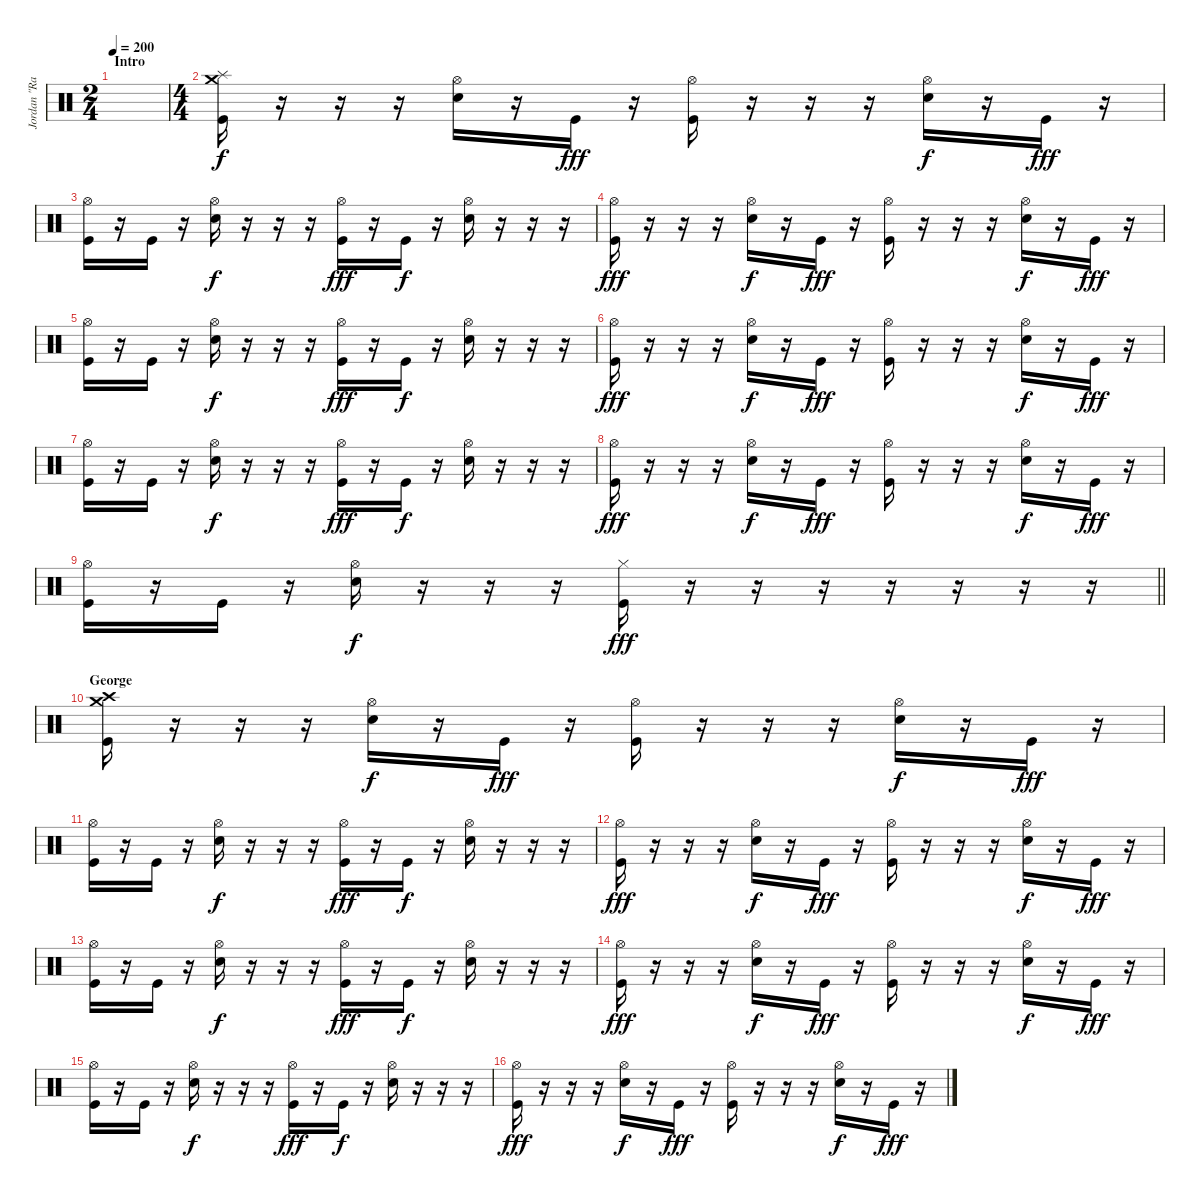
\track ("Jordan \"Ratbeard\" Hastings" "Jordan \"Ra") {instrument percussion}
\staff {score}
\articulation defaults
\ts (2 4)
\section ("" "Intro")
\tempo 200
\clef neutral
\ks c
|
\ts (4 4)
("Crash medium (hit)" "Splash (hit)" "Kick (hit)").16 r.16 r.16 r.16 ("Hi-Hat (open)" "Electric Snare (hit)").16{dy f} r.16 "Kick (hit)".16{dy fff} r.16 ("Hi-Hat (open)" "Kick (hit)").16 r.16 r.16 r.16 ("Hi-Hat (open)" "Electric Snare (hit)").16{dy f} r.16 "Kick (hit)".16{dy fff} r.16 |
("Hi-Hat (open)" "Kick (hit)").16 r.16 "Kick (hit)".16 r.16 ("Hi-Hat (open)" "Electric Snare (hit)").16{dy f} r.16 r.16 r.16 ("Hi-Hat (open)" "Kick (hit)").16{dy fff} r.16 "Kick (hit)".16{dy f} r.16 ("Hi-Hat (open)" "Electric Snare (hit)").16 r.16 r.16 r.16 |
("Hi-Hat (open)" "Kick (hit)").16{dy fff} r.16 r.16 r.16 ("Hi-Hat (open)" "Electric Snare (hit)").16{dy f} r.16 "Kick (hit)".16{dy fff} r.16 ("Hi-Hat (open)" "Kick (hit)").16 r.16 r.16 r.16 ("Hi-Hat (open)" "Electric Snare (hit)").16{dy f} r.16 "Kick (hit)".16{dy fff} r.16 |
("Hi-Hat (open)" "Kick (hit)").16 r.16 "Kick (hit)".16 r.16 ("Hi-Hat (open)" "Electric Snare (hit)").16{dy f} r.16 r.16 r.16 ("Hi-Hat (open)" "Kick (hit)").16{dy fff} r.16 "Kick (hit)".16{dy f} r.16 ("Hi-Hat (open)" "Electric Snare (hit)").16 r.16 r.16 r.16 |
("Hi-Hat (open)" "Kick (hit)").16{dy fff} r.16 r.16 r.16 ("Hi-Hat (open)" "Electric Snare (hit)").16{dy f} r.16 "Kick (hit)".16{dy fff} r.16 ("Hi-Hat (open)" "Kick (hit)").16 r.16 r.16 r.16 ("Hi-Hat (open)" "Electric Snare (hit)").16{dy f} r.16 "Kick (hit)".16{dy fff} r.16 |
("Hi-Hat (open)" "Kick (hit)").16 r.16 "Kick (hit)".16 r.16 ("Hi-Hat (open)" "Electric Snare (hit)").16{dy f} r.16 r.16 r.16 ("Hi-Hat (open)" "Kick (hit)").16{dy fff} r.16 "Kick (hit)".16{dy f} r.16 ("Hi-Hat (open)" "Electric Snare (hit)").16 r.16 r.16 r.16 |
("Hi-Hat (open)" "Kick (hit)").16{dy fff} r.16 r.16 r.16 ("Hi-Hat (open)" "Electric Snare (hit)").16{dy f} r.16 "Kick (hit)".16{dy fff} r.16 ("Hi-Hat (open)" "Kick (hit)").16 r.16 r.16 r.16 ("Hi-Hat (open)" "Electric Snare (hit)").16{dy f} r.16 "Kick (hit)".16{dy fff} r.16 |
\barLineRight lightlight
("Hi-Hat (open)" "Kick (hit)").16 r.16 "Kick (hit)".16 r.16 ("Hi-Hat (open)" "Electric Snare (hit)").16{dy f} r.16 r.16 r.16 ("Hi-Hat (closed)" "Kick (hit)").16{dy fff} r.16 r.16 r.16 r.16 r.16 r.16 r.16 |
\section ("" "George")
("Crash medium (hit)" "Crash high (hit)" "Kick (hit)").16 r.16 r.16 r.16 ("Hi-Hat (open)" "Electric Snare (hit)").16{dy f} r.16 "Kick (hit)".16{dy fff} r.16 ("Hi-Hat (open)" "Kick (hit)").16 r.16 r.16 r.16 ("Hi-Hat (open)" "Electric Snare (hit)").16{dy f} r.16 "Kick (hit)".16{dy fff} r.16 |
("Hi-Hat (open)" "Kick (hit)").16 r.16 "Kick (hit)".16 r.16 ("Hi-Hat (open)" "Electric Snare (hit)").16{dy f} r.16 r.16 r.16 ("Hi-Hat (open)" "Kick (hit)").16{dy fff} r.16 "Kick (hit)".16{dy f} r.16 ("Hi-Hat (open)" "Electric Snare (hit)").16 r.16 r.16 r.16 |
("Hi-Hat (open)" "Kick (hit)").16{dy fff} r.16 r.16 r.16 ("Hi-Hat (open)" "Electric Snare (hit)").16{dy f} r.16 "Kick (hit)".16{dy fff} r.16 ("Hi-Hat (open)" "Kick (hit)").16 r.16 r.16 r.16 ("Hi-Hat (open)" "Electric Snare (hit)").16{dy f} r.16 "Kick (hit)".16{dy fff} r.16 |
("Hi-Hat (open)" "Kick (hit)").16 r.16 "Kick (hit)".16 r.16 ("Hi-Hat (open)" "Electric Snare (hit)").16{dy f} r.16 r.16 r.16 ("Hi-Hat (open)" "Kick (hit)").16{dy fff} r.16 "Kick (hit)".16{dy f} r.16 ("Hi-Hat (open)" "Electric Snare (hit)").16 r.16 r.16 r.16 |
("Hi-Hat (open)" "Kick (hit)").16{dy fff} r.16 r.16 r.16 ("Hi-Hat (open)" "Electric Snare (hit)").16{dy f} r.16 "Kick (hit)".16{dy fff} r.16 ("Hi-Hat (open)" "Kick (hit)").16 r.16 r.16 r.16 ("Hi-Hat (open)" "Electric Snare (hit)").16{dy f} r.16 "Kick (hit)".16{dy fff} r.16 |
("Hi-Hat (open)" "Kick (hit)").16 r.16 "Kick (hit)".16 r.16 ("Hi-Hat (open)" "Electric Snare (hit)").16{dy f} r.16 r.16 r.16 ("Hi-Hat (open)" "Kick (hit)").16{dy fff} r.16 "Kick (hit)".16{dy f} r.16 ("Hi-Hat (open)" "Electric Snare (hit)").16 r.16 r.16 r.16 |
("Hi-Hat (open)" "Kick (hit)").16{dy fff} r.16 r.16 r.16 ("Hi-Hat (open)" "Electric Snare (hit)").16{dy f} r.16 "Kick (hit)".16{dy fff} r.16 ("Hi-Hat (open)" "Kick (hit)").16 r.16 r.16 r.16 ("Hi-Hat (open)" "Electric Snare (hit)").16{dy f} r.16 "Kick (hit)".16{dy fff} r.16
